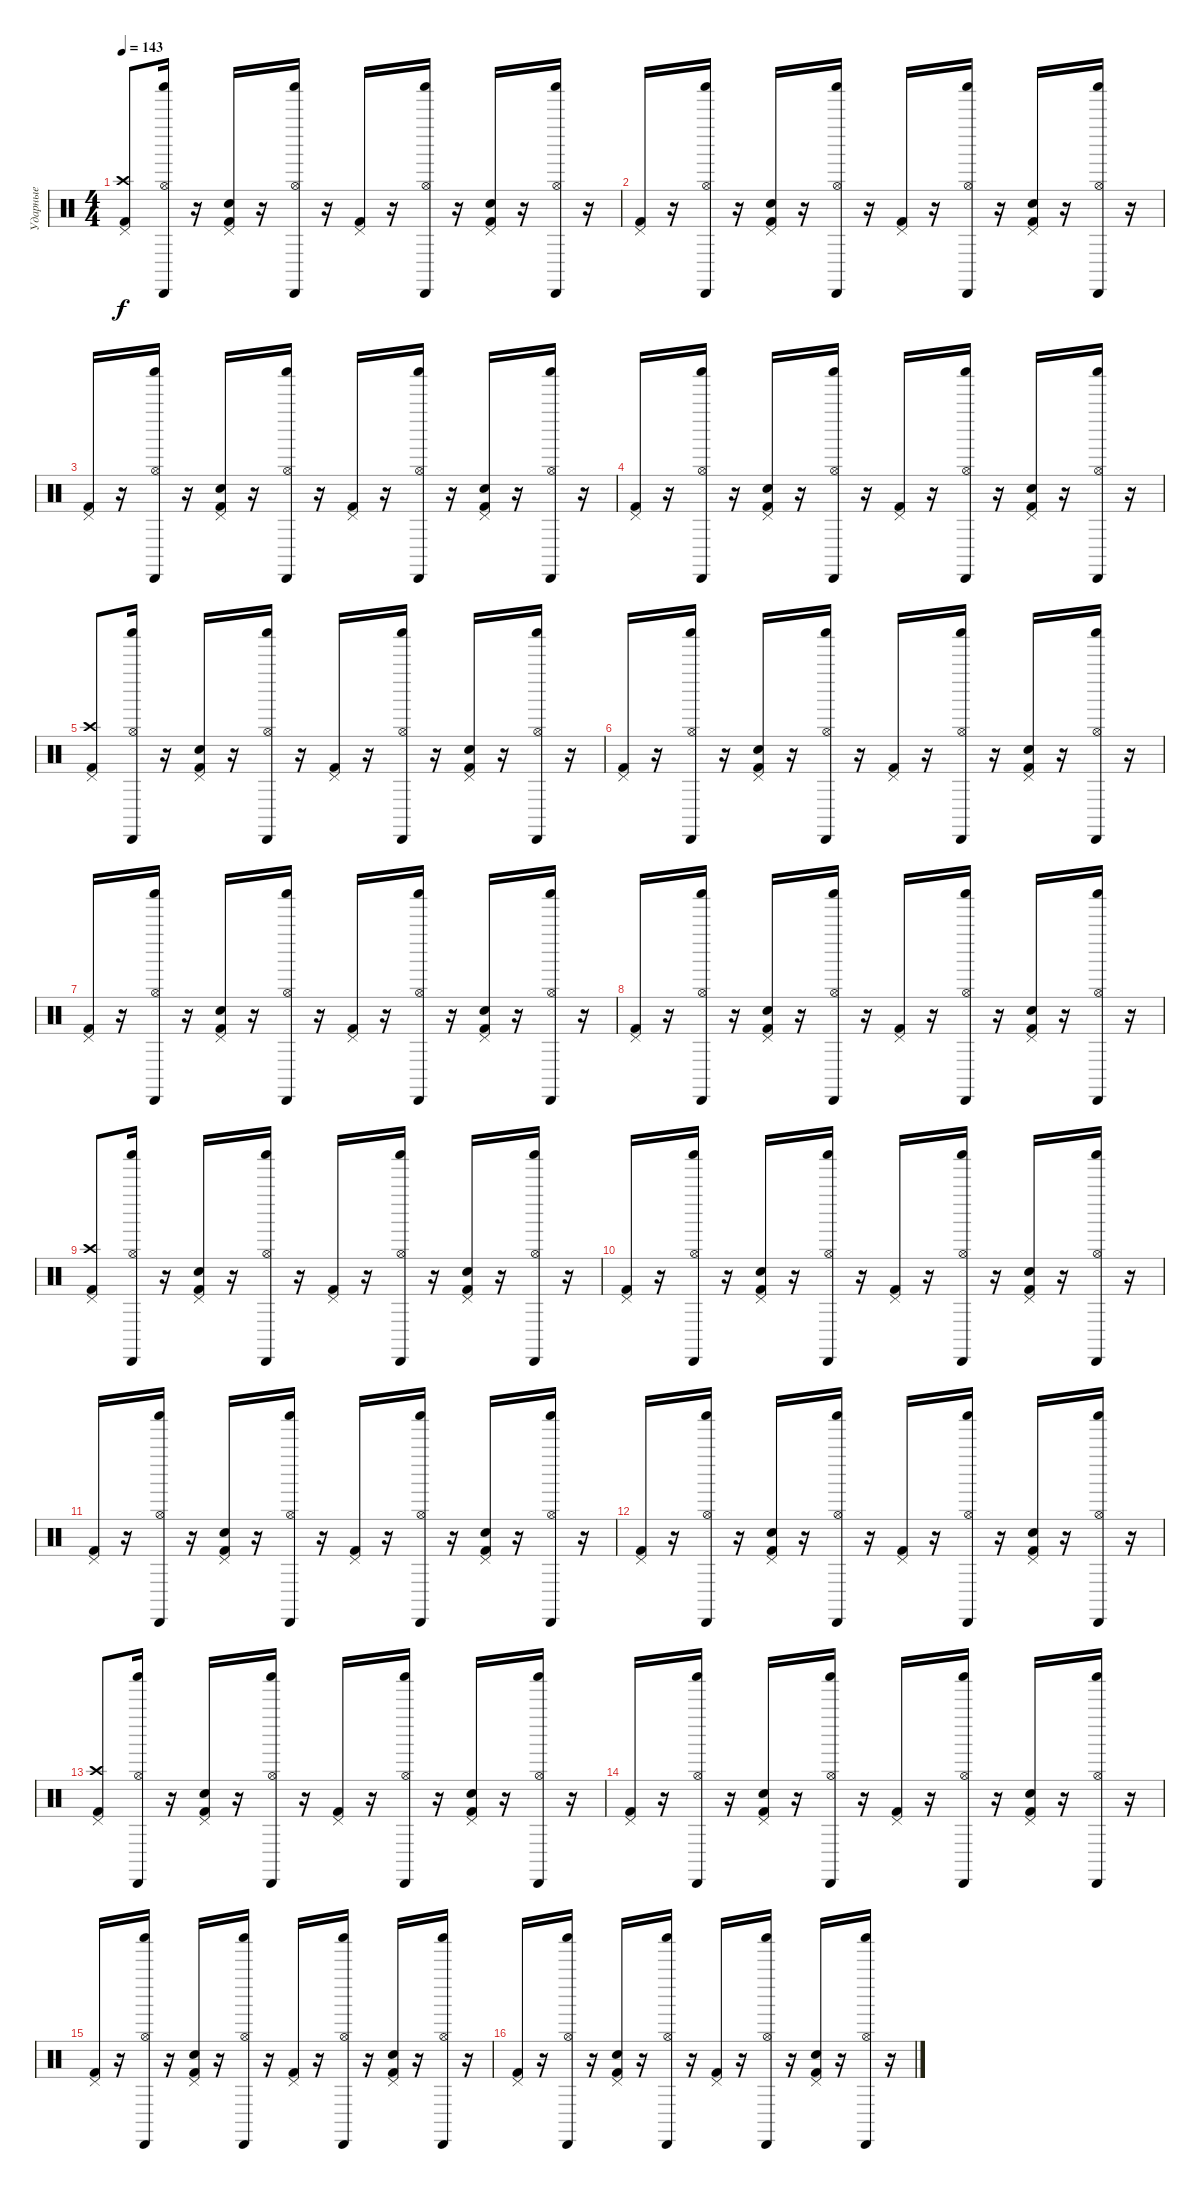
\track ("Ударные" "Ударные") {instrument percussion}
\staff {score}
\articulation defaults
\ts (4 4)
\tempo 143
\clef neutral
\ks c
("Crash high (hit)" "Kick (hit) 2" "Pedal Hi-Hat (hit)").8{dy f} ("Hi-Hat (open)" "Shaker (hit)" "Cabasa (hit)").16 r.16 ("Snare (hit) 2" "Kick (hit) 2" "Pedal Hi-Hat (hit)").16 r.16 ("Hi-Hat (open)" "Shaker (hit)" "Cabasa (hit)").16 r.16 ("Kick (hit) 2" "Pedal Hi-Hat (hit)").16 r.16 ("Hi-Hat (open)" "Shaker (hit)" "Cabasa (hit)").16 r.16 ("Kick (hit) 2" "Snare (hit) 2" "Pedal Hi-Hat (hit)").16 r.16 ("Hi-Hat (open)" "Shaker (hit)" "Cabasa (hit)").16 r.16 |
("Kick (hit) 2" "Pedal Hi-Hat (hit)").16 r.16 ("Hi-Hat (open)" "Shaker (hit)" "Cabasa (hit)").16 r.16 ("Kick (hit) 2" "Snare (hit) 2" "Pedal Hi-Hat (hit)").16 r.16 ("Hi-Hat (open)" "Shaker (hit)" "Cabasa (hit)").16 r.16 ("Kick (hit) 2" "Pedal Hi-Hat (hit)").16 r.16 ("Hi-Hat (open)" "Shaker (hit)" "Cabasa (hit)").16 r.16 ("Kick (hit) 2" "Snare (hit) 2" "Pedal Hi-Hat (hit)").16 r.16 ("Hi-Hat (open)" "Shaker (hit)" "Cabasa (hit)").16 r.16 |
("Kick (hit) 2" "Pedal Hi-Hat (hit)").16 r.16 ("Hi-Hat (open)" "Shaker (hit)" "Cabasa (hit)").16 r.16 ("Kick (hit) 2" "Snare (hit) 2" "Pedal Hi-Hat (hit)").16 r.16 ("Hi-Hat (open)" "Shaker (hit)" "Cabasa (hit)").16 r.16 ("Kick (hit) 2" "Pedal Hi-Hat (hit)").16 r.16 ("Hi-Hat (open)" "Shaker (hit)" "Cabasa (hit)").16 r.16 ("Kick (hit) 2" "Snare (hit) 2" "Pedal Hi-Hat (hit)").16 r.16 ("Hi-Hat (open)" "Shaker (hit)" "Cabasa (hit)").16 r.16 |
("Kick (hit) 2" "Pedal Hi-Hat (hit)").16 r.16 ("Hi-Hat (open)" "Shaker (hit)" "Cabasa (hit)").16 r.16 ("Snare (hit) 2" "Kick (hit) 2" "Pedal Hi-Hat (hit)").16 r.16 ("Hi-Hat (open)" "Shaker (hit)" "Cabasa (hit)").16 r.16 ("Kick (hit) 2" "Pedal Hi-Hat (hit)").16 r.16 ("Hi-Hat (open)" "Shaker (hit)" "Cabasa (hit)").16 r.16 ("Snare (hit) 2" "Kick (hit) 2" "Pedal Hi-Hat (hit)").16 r.16 ("Hi-Hat (open)" "Shaker (hit)" "Cabasa (hit)").16 r.16 |
("Crash high (hit)" "Kick (hit) 2" "Pedal Hi-Hat (hit)").8 ("Hi-Hat (open)" "Shaker (hit)" "Cabasa (hit)").16 r.16 ("Kick (hit) 2" "Snare (hit) 2" "Pedal Hi-Hat (hit)").16 r.16 ("Hi-Hat (open)" "Shaker (hit)" "Cabasa (hit)").16 r.16 ("Kick (hit) 2" "Pedal Hi-Hat (hit)").16 r.16 ("Hi-Hat (open)" "Shaker (hit)" "Cabasa (hit)").16 r.16 ("Snare (hit) 2" "Kick (hit) 2" "Pedal Hi-Hat (hit)").16 r.16 ("Hi-Hat (open)" "Shaker (hit)" "Cabasa (hit)").16 r.16 |
("Kick (hit) 2" "Pedal Hi-Hat (hit)").16 r.16 ("Hi-Hat (open)" "Shaker (hit)" "Cabasa (hit)").16 r.16 ("Kick (hit) 2" "Snare (hit) 2" "Pedal Hi-Hat (hit)").16 r.16 ("Hi-Hat (open)" "Shaker (hit)" "Cabasa (hit)").16 r.16 ("Kick (hit) 2" "Pedal Hi-Hat (hit)").16 r.16 ("Hi-Hat (open)" "Shaker (hit)" "Cabasa (hit)").16 r.16 ("Kick (hit) 2" "Snare (hit) 2" "Pedal Hi-Hat (hit)").16 r.16 ("Hi-Hat (open)" "Shaker (hit)" "Cabasa (hit)").16 r.16 |
("Kick (hit) 2" "Pedal Hi-Hat (hit)").16 r.16 ("Hi-Hat (open)" "Shaker (hit)" "Cabasa (hit)").16 r.16 ("Kick (hit) 2" "Snare (hit) 2" "Pedal Hi-Hat (hit)").16 r.16 ("Hi-Hat (open)" "Shaker (hit)" "Cabasa (hit)").16 r.16 ("Kick (hit) 2" "Pedal Hi-Hat (hit)").16 r.16 ("Hi-Hat (open)" "Shaker (hit)" "Cabasa (hit)").16 r.16 ("Snare (hit) 2" "Kick (hit) 2" "Pedal Hi-Hat (hit)").16 r.16 ("Hi-Hat (open)" "Shaker (hit)" "Cabasa (hit)").16 r.16 |
("Kick (hit) 2" "Pedal Hi-Hat (hit)").16 r.16 ("Hi-Hat (open)" "Shaker (hit)" "Cabasa (hit)").16 r.16 ("Kick (hit) 2" "Snare (hit) 2" "Pedal Hi-Hat (hit)").16 r.16 ("Hi-Hat (open)" "Shaker (hit)" "Cabasa (hit)").16 r.16 ("Kick (hit) 2" "Pedal Hi-Hat (hit)").16 r.16 ("Hi-Hat (open)" "Shaker (hit)" "Cabasa (hit)").16 r.16 ("Snare (hit) 2" "Kick (hit) 2" "Pedal Hi-Hat (hit)").16 r.16 ("Hi-Hat (open)" "Shaker (hit)" "Cabasa (hit)").16 r.16 |
("Kick (hit) 2" "Crash high (hit)" "Pedal Hi-Hat (hit)").8 ("Hi-Hat (open)" "Shaker (hit)" "Cabasa (hit)").16 r.16 ("Kick (hit) 2" "Snare (hit) 2" "Pedal Hi-Hat (hit)").16 r.16 ("Hi-Hat (open)" "Shaker (hit)" "Cabasa (hit)").16 r.16 ("Kick (hit) 2" "Pedal Hi-Hat (hit)").16 r.16 ("Hi-Hat (open)" "Shaker (hit)" "Cabasa (hit)").16 r.16 ("Snare (hit) 2" "Kick (hit) 2" "Pedal Hi-Hat (hit)").16 r.16 ("Hi-Hat (open)" "Shaker (hit)" "Cabasa (hit)").16 r.16 |
("Kick (hit) 2" "Pedal Hi-Hat (hit)").16 r.16 ("Hi-Hat (open)" "Shaker (hit)" "Cabasa (hit)").16 r.16 ("Kick (hit) 2" "Snare (hit) 2" "Pedal Hi-Hat (hit)").16 r.16 ("Hi-Hat (open)" "Shaker (hit)" "Cabasa (hit)").16 r.16 ("Kick (hit) 2" "Pedal Hi-Hat (hit)").16 r.16 ("Hi-Hat (open)" "Shaker (hit)" "Cabasa (hit)").16 r.16 ("Snare (hit) 2" "Kick (hit) 2" "Pedal Hi-Hat (hit)").16 r.16 ("Hi-Hat (open)" "Shaker (hit)" "Cabasa (hit)").16 r.16 |
("Kick (hit) 2" "Pedal Hi-Hat (hit)").16 r.16 ("Hi-Hat (open)" "Shaker (hit)" "Cabasa (hit)").16 r.16 ("Kick (hit) 2" "Snare (hit) 2" "Pedal Hi-Hat (hit)").16 r.16 ("Hi-Hat (open)" "Shaker (hit)" "Cabasa (hit)").16 r.16 ("Kick (hit) 2" "Pedal Hi-Hat (hit)").16 r.16 ("Hi-Hat (open)" "Shaker (hit)" "Cabasa (hit)").16 r.16 ("Snare (hit) 2" "Kick (hit) 2" "Pedal Hi-Hat (hit)").16 r.16 ("Hi-Hat (open)" "Shaker (hit)" "Cabasa (hit)").16 r.16 |
("Kick (hit) 2" "Pedal Hi-Hat (hit)").16 r.16 ("Hi-Hat (open)" "Shaker (hit)" "Cabasa (hit)").16 r.16 ("Snare (hit) 2" "Kick (hit) 2" "Pedal Hi-Hat (hit)").16 r.16 ("Hi-Hat (open)" "Shaker (hit)" "Cabasa (hit)").16 r.16 ("Kick (hit) 2" "Pedal Hi-Hat (hit)").16 r.16 ("Hi-Hat (open)" "Shaker (hit)" "Cabasa (hit)").16 r.16 ("Snare (hit) 2" "Kick (hit) 2" "Pedal Hi-Hat (hit)").16 r.16 ("Hi-Hat (open)" "Shaker (hit)" "Cabasa (hit)").16 r.16 |
("Crash high (hit)" "Kick (hit) 2" "Pedal Hi-Hat (hit)").8 ("Hi-Hat (open)" "Shaker (hit)" "Cabasa (hit)").16 r.16 ("Kick (hit) 2" "Snare (hit) 2" "Pedal Hi-Hat (hit)").16 r.16 ("Hi-Hat (open)" "Shaker (hit)" "Cabasa (hit)").16 r.16 ("Kick (hit) 2" "Pedal Hi-Hat (hit)").16 r.16 ("Hi-Hat (open)" "Shaker (hit)" "Cabasa (hit)").16 r.16 ("Kick (hit) 2" "Snare (hit) 2" "Pedal Hi-Hat (hit)").16 r.16 ("Hi-Hat (open)" "Shaker (hit)" "Cabasa (hit)").16 r.16 |
("Kick (hit) 2" "Pedal Hi-Hat (hit)").16 r.16 ("Hi-Hat (open)" "Shaker (hit)" "Cabasa (hit)").16 r.16 ("Kick (hit) 2" "Snare (hit) 2" "Pedal Hi-Hat (hit)").16 r.16 ("Hi-Hat (open)" "Shaker (hit)" "Cabasa (hit)").16 r.16 ("Kick (hit) 2" "Pedal Hi-Hat (hit)").16 r.16 ("Hi-Hat (open)" "Shaker (hit)" "Cabasa (hit)").16 r.16 ("Kick (hit) 2" "Snare (hit) 2" "Pedal Hi-Hat (hit)").16 r.16 ("Hi-Hat (open)" "Shaker (hit)" "Cabasa (hit)").16 r.16 |
("Kick (hit) 2" "Pedal Hi-Hat (hit)").16 r.16 ("Hi-Hat (open)" "Shaker (hit)" "Cabasa (hit)").16 r.16 ("Kick (hit) 2" "Snare (hit) 2" "Pedal Hi-Hat (hit)").16 r.16 ("Hi-Hat (open)" "Shaker (hit)" "Cabasa (hit)").16 r.16 ("Kick (hit) 2" "Pedal Hi-Hat (hit)").16 r.16 ("Hi-Hat (open)" "Shaker (hit)" "Cabasa (hit)").16 r.16 ("Snare (hit) 2" "Kick (hit) 2" "Pedal Hi-Hat (hit)").16 r.16 ("Hi-Hat (open)" "Shaker (hit)" "Cabasa (hit)").16 r.16 |
("Kick (hit) 2" "Pedal Hi-Hat (hit)").16 r.16 ("Hi-Hat (open)" "Shaker (hit)" "Cabasa (hit)").16 r.16 ("Kick (hit) 2" "Snare (hit) 2" "Pedal Hi-Hat (hit)").16 r.16 ("Hi-Hat (open)" "Shaker (hit)" "Cabasa (hit)").16 r.16 ("Kick (hit) 2" "Pedal Hi-Hat (hit)").16 r.16 ("Hi-Hat (open)" "Shaker (hit)" "Cabasa (hit)").16 r.16 ("Snare (hit) 2" "Kick (hit) 2" "Pedal Hi-Hat (hit)").16 r.16 ("Hi-Hat (open)" "Shaker (hit)" "Cabasa (hit)").16 r.16
